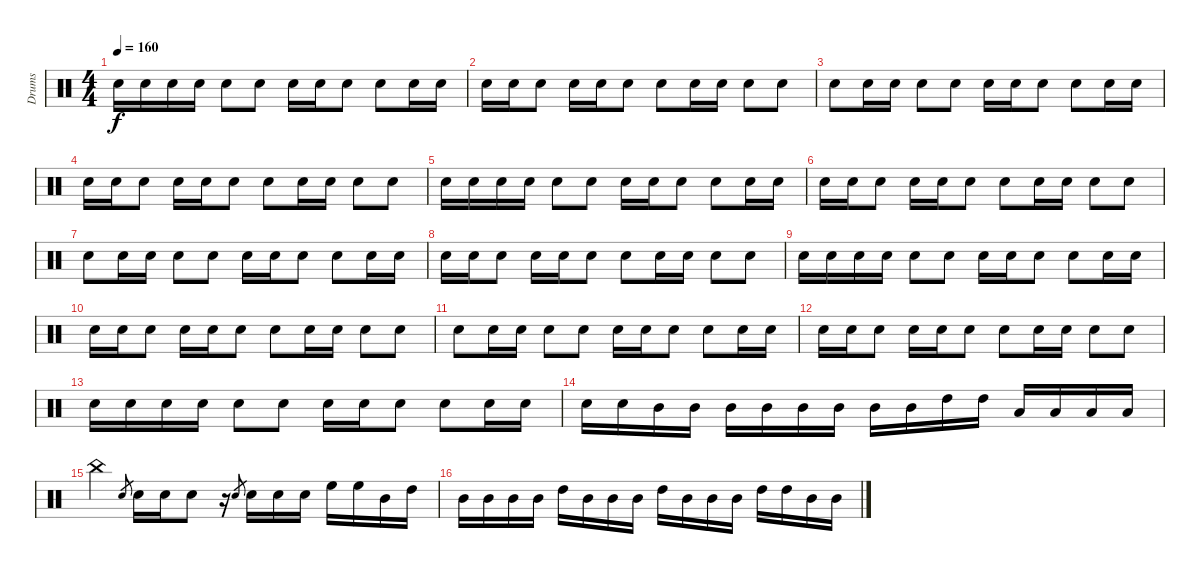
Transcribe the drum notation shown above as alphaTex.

\track ("Drums" "Drums") {instrument percussion}
\staff {score}
\articulation defaults
\ts (4 4)
\tempo 160
\clef neutral
\ks aminor "Electric Snare (hit)".16{dy f} "Electric Snare (hit)".16 "Electric Snare (hit)".16 "Electric Snare (hit)".16 "Electric Snare (hit)".8 "Electric Snare (hit)".8 "Electric Snare (hit)".16 "Electric Snare (hit)".16 "Electric Snare (hit)".8 "Electric Snare (hit)".8 "Electric Snare (hit)".16 "Electric Snare (hit)".16
|
"Electric Snare (hit)".16 "Electric Snare (hit)".16 "Electric Snare (hit)".8 "Electric Snare (hit)".16 "Electric Snare (hit)".16 "Electric Snare (hit)".8 "Electric Snare (hit)".8 "Electric Snare (hit)".16 "Electric Snare (hit)".16 "Electric Snare (hit)".8 "Electric Snare (hit)".8 |
"Electric Snare (hit)".8 "Electric Snare (hit)".16 "Electric Snare (hit)".16 "Electric Snare (hit)".8 "Electric Snare (hit)".8 "Electric Snare (hit)".16 "Electric Snare (hit)".16 "Electric Snare (hit)".8 "Electric Snare (hit)".8 "Electric Snare (hit)".16 "Electric Snare (hit)".16 |
"Electric Snare (hit)".16 "Electric Snare (hit)".16 "Electric Snare (hit)".8 "Electric Snare (hit)".16 "Electric Snare (hit)".16 "Electric Snare (hit)".8 "Electric Snare (hit)".8 "Electric Snare (hit)".16 "Electric Snare (hit)".16 "Electric Snare (hit)".8 "Electric Snare (hit)".8 |
"Electric Snare (hit)".16 "Electric Snare (hit)".16 "Electric Snare (hit)".16 "Electric Snare (hit)".16 "Electric Snare (hit)".8 "Electric Snare (hit)".8 "Electric Snare (hit)".16 "Electric Snare (hit)".16 "Electric Snare (hit)".8 "Electric Snare (hit)".8 "Electric Snare (hit)".16 "Electric Snare (hit)".16 |
"Electric Snare (hit)".16 "Electric Snare (hit)".16 "Electric Snare (hit)".8 "Electric Snare (hit)".16 "Electric Snare (hit)".16 "Electric Snare (hit)".8 "Electric Snare (hit)".8 "Electric Snare (hit)".16 "Electric Snare (hit)".16 "Electric Snare (hit)".8 "Electric Snare (hit)".8 |
"Electric Snare (hit)".8 "Electric Snare (hit)".16 "Electric Snare (hit)".16 "Electric Snare (hit)".8 "Electric Snare (hit)".8 "Electric Snare (hit)".16 "Electric Snare (hit)".16 "Electric Snare (hit)".8 "Electric Snare (hit)".8 "Electric Snare (hit)".16 "Electric Snare (hit)".16 |
"Electric Snare (hit)".16 "Electric Snare (hit)".16 "Electric Snare (hit)".8 "Electric Snare (hit)".16 "Electric Snare (hit)".16 "Electric Snare (hit)".8 "Electric Snare (hit)".8 "Electric Snare (hit)".16 "Electric Snare (hit)".16 "Electric Snare (hit)".8 "Electric Snare (hit)".8 |
"Electric Snare (hit)".16 "Electric Snare (hit)".16 "Electric Snare (hit)".16 "Electric Snare (hit)".16 "Electric Snare (hit)".8 "Electric Snare (hit)".8 "Electric Snare (hit)".16 "Electric Snare (hit)".16 "Electric Snare (hit)".8 "Electric Snare (hit)".8 "Electric Snare (hit)".16 "Electric Snare (hit)".16 |
"Electric Snare (hit)".16 "Electric Snare (hit)".16 "Electric Snare (hit)".8 "Electric Snare (hit)".16 "Electric Snare (hit)".16 "Electric Snare (hit)".8 "Electric Snare (hit)".8 "Electric Snare (hit)".16 "Electric Snare (hit)".16 "Electric Snare (hit)".8 "Electric Snare (hit)".8 |
"Electric Snare (hit)".8 "Electric Snare (hit)".16 "Electric Snare (hit)".16 "Electric Snare (hit)".8 "Electric Snare (hit)".8 "Electric Snare (hit)".16 "Electric Snare (hit)".16 "Electric Snare (hit)".8 "Electric Snare (hit)".8 "Electric Snare (hit)".16 "Electric Snare (hit)".16 |
"Electric Snare (hit)".16 "Electric Snare (hit)".16 "Electric Snare (hit)".8 "Electric Snare (hit)".16 "Electric Snare (hit)".16 "Electric Snare (hit)".8 "Electric Snare (hit)".8 "Electric Snare (hit)".16 "Electric Snare (hit)".16 "Electric Snare (hit)".8 "Electric Snare (hit)".8 |
"Electric Snare (hit)".16 "Electric Snare (hit)".16 "Electric Snare (hit)".16 "Electric Snare (hit)".16 "Electric Snare (hit)".8 "Electric Snare (hit)".8 "Electric Snare (hit)".16 "Electric Snare (hit)".16 "Electric Snare (hit)".8 "Electric Snare (hit)".8 "Electric Snare (hit)".16 "Electric Snare (hit)".16 |
"Electric Snare (hit)".16 "Electric Snare (hit)".16 "Mid Tom (hit)".16 "Mid Tom (hit)".16 "Mid Tom (hit)".16 "Mid Tom (hit)".16 "Mid Tom (hit)".16 "Mid Tom (hit)".16 "Mid Tom (hit)".16 "Mid Tom (hit)".16 "High Tom (hit)".16 "High Tom (hit)".16 "Low Tom (hit)".16 "Low Tom (hit)".16 "Low Tom (hit)".16 "Low Tom (hit)".16 |
"China (hit)".4 "Electric Snare (hit)".8{gr} "Electric Snare (hit)".16 "Electric Snare (hit)".16 "Electric Snare (hit)".8 r.16 "Electric Snare (hit)".8{gr} "Electric Snare (hit)".16 "Electric Snare (hit)".16 "Electric Snare (hit)".16 "High Floor Tom (hit)".16 "High Floor Tom (hit)".16 "Mid Tom (hit)".16 "High Tom (hit)".16 |
"Mid Tom (hit)".16 "Mid Tom (hit)".16 "Mid Tom (hit)".16 "Mid Tom (hit)".16 "High Tom (hit)".16 "Mid Tom (hit)".16 "Mid Tom (hit)".16 "Mid Tom (hit)".16 "High Tom (hit)".16 "Mid Tom (hit)".16 "Mid Tom (hit)".16 "Mid Tom (hit)".16 "High Tom (hit)".16 "High Tom (hit)".16 "Mid Tom (hit)".16 "Mid Tom (hit)".16
